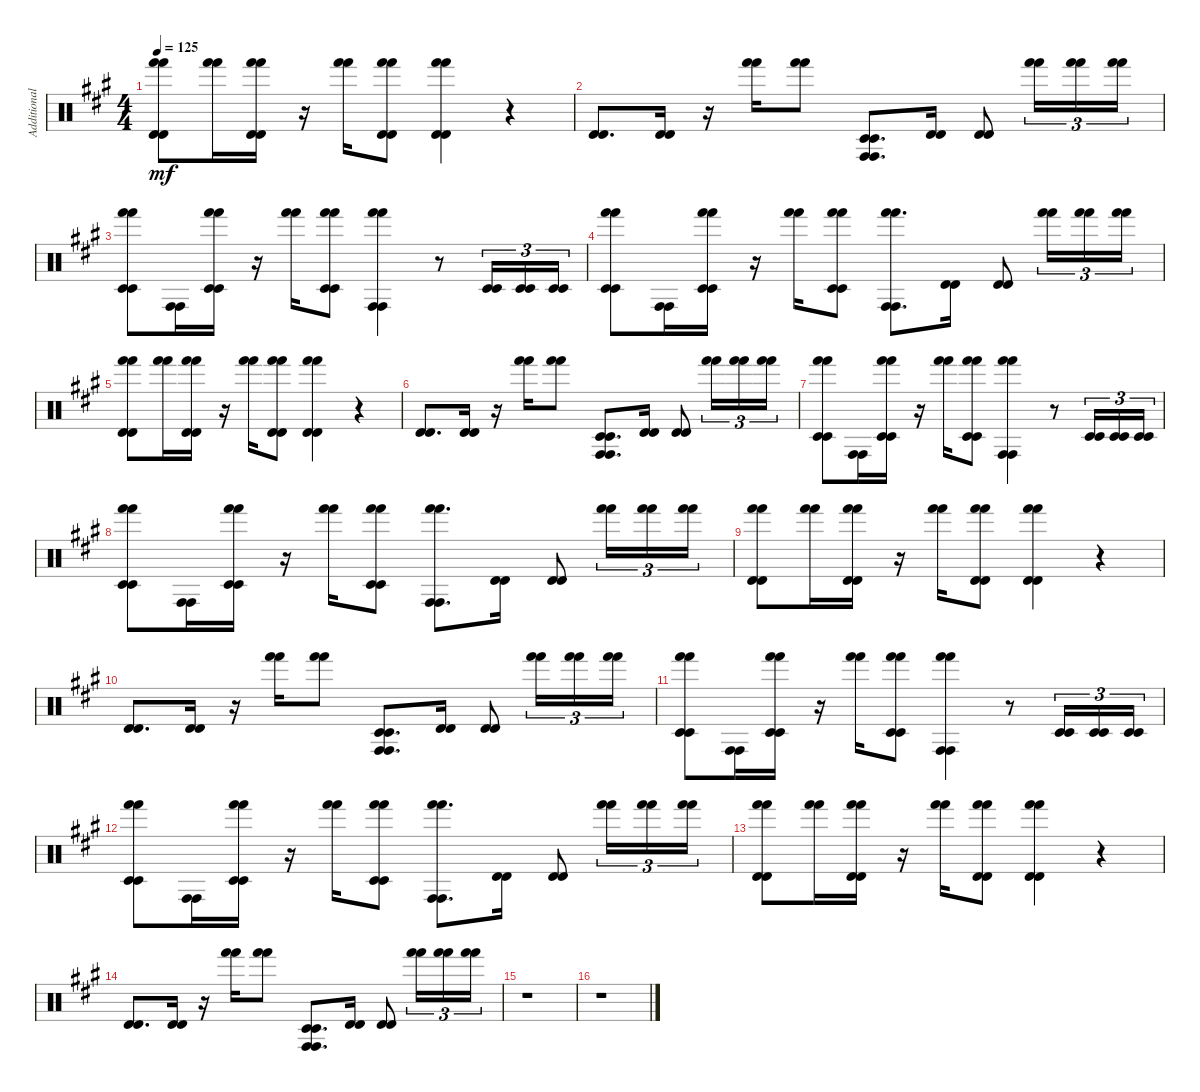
\track ("Additional Percussion I" "Additional") {instrument percussion}
\staff {score}
\articulation defaults
\ts (4 4)
\tempo 125
\clef neutral
\ks a
("Timbale high (hit)" "Timbale high (hit)" "Hand (hit)" "Hand (hit)").8{dy mf} ("Hand (hit)" "Hand (hit)").16 ("Timbale high (hit)" "Timbale high (hit)" "Hand (hit)" "Hand (hit)").16 r.16 ("Hand (hit)" "Hand (hit)").16 ("Timbale high (hit)" "Timbale high (hit)" "Hand (hit)" "Hand (hit)").8 ("Timbale high (hit)" "Timbale high (hit)" "Hand (hit)" "Hand (hit)").4 r.4 |
("Timbale high (hit)" "Timbale high (hit)").8{d} ("Timbale high (hit)" "Timbale high (hit)").16 r.16 ("Hand (hit)" "Hand (hit)").16 ("Hand (hit)" "Hand (hit)").8 ("Timbale low (hit)" "Timbale low (hit)" "Conga high (hit)" "Conga high (hit)").8{d} ("Timbale high (hit)" "Timbale high (hit)").16 ("Timbale high (hit)" "Timbale high (hit)").8 ("Hand (hit)" "Hand (hit)").16{tu (3 2)} ("Hand (hit)" "Hand (hit)").16{tu (3 2)} ("Hand (hit)" "Hand (hit)").16{tu (3 2)} |
("Timbale low (hit)" "Timbale low (hit)" "Hand (hit)" "Hand (hit)").8 ("Conga high (hit)" "Conga high (hit)").16 ("Timbale low (hit)" "Timbale low (hit)" "Hand (hit)" "Hand (hit)").16 r.16 ("Hand (hit)" "Hand (hit)").16 ("Timbale low (hit)" "Timbale low (hit)" "Hand (hit)" "Hand (hit)").8 ("Hand (hit)" "Hand (hit)" "Conga high (hit)" "Conga high (hit)").4 r.8 ("Timbale low (hit)" "Timbale low (hit)").16{tu (3 2)} ("Timbale low (hit)" "Timbale low (hit)").16{tu (3 2)} ("Timbale low (hit)" "Timbale low (hit)").16{tu (3 2)} |
("Timbale low (hit)" "Timbale low (hit)" "Hand (hit)" "Hand (hit)").8 ("Conga high (hit)" "Conga high (hit)").16 ("Timbale low (hit)" "Timbale low (hit)" "Hand (hit)" "Hand (hit)").16 r.16 ("Hand (hit)" "Hand (hit)").16 ("Timbale low (hit)" "Timbale low (hit)" "Hand (hit)" "Hand (hit)").8 ("Hand (hit)" "Hand (hit)" "Conga high (hit)" "Conga high (hit)").8{d} ("Timbale high (hit)" "Timbale high (hit)").16 ("Timbale high (hit)" "Timbale high (hit)").8 ("Hand (hit)" "Hand (hit)").16{tu (3 2)} ("Hand (hit)" "Hand (hit)").16{tu (3 2)} ("Hand (hit)" "Hand (hit)").16{tu (3 2)} |
("Timbale high (hit)" "Timbale high (hit)" "Hand (hit)" "Hand (hit)").8 ("Hand (hit)" "Hand (hit)").16 ("Timbale high (hit)" "Timbale high (hit)" "Hand (hit)" "Hand (hit)").16 r.16 ("Hand (hit)" "Hand (hit)").16 ("Timbale high (hit)" "Timbale high (hit)" "Hand (hit)" "Hand (hit)").8 ("Timbale high (hit)" "Timbale high (hit)" "Hand (hit)" "Hand (hit)").4 r.4 |
("Timbale high (hit)" "Timbale high (hit)").8{d} ("Timbale high (hit)" "Timbale high (hit)").16 r.16 ("Hand (hit)" "Hand (hit)").16 ("Hand (hit)" "Hand (hit)").8 ("Timbale low (hit)" "Timbale low (hit)" "Conga high (hit)" "Conga high (hit)").8{d} ("Timbale high (hit)" "Timbale high (hit)").16 ("Timbale high (hit)" "Timbale high (hit)").8 ("Hand (hit)" "Hand (hit)").16{tu (3 2)} ("Hand (hit)" "Hand (hit)").16{tu (3 2)} ("Hand (hit)" "Hand (hit)").16{tu (3 2)} |
("Timbale low (hit)" "Timbale low (hit)" "Hand (hit)" "Hand (hit)").8 ("Conga high (hit)" "Conga high (hit)").16 ("Timbale low (hit)" "Timbale low (hit)" "Hand (hit)" "Hand (hit)").16 r.16 ("Hand (hit)" "Hand (hit)").16 ("Timbale low (hit)" "Timbale low (hit)" "Hand (hit)" "Hand (hit)").8 ("Hand (hit)" "Hand (hit)" "Conga high (hit)" "Conga high (hit)").4 r.8 ("Timbale low (hit)" "Timbale low (hit)").16{tu (3 2)} ("Timbale low (hit)" "Timbale low (hit)").16{tu (3 2)} ("Timbale low (hit)" "Timbale low (hit)").16{tu (3 2)} |
("Timbale low (hit)" "Timbale low (hit)" "Hand (hit)" "Hand (hit)").8 ("Conga high (hit)" "Conga high (hit)").16 ("Timbale low (hit)" "Timbale low (hit)" "Hand (hit)" "Hand (hit)").16 r.16 ("Hand (hit)" "Hand (hit)").16 ("Timbale low (hit)" "Timbale low (hit)" "Hand (hit)" "Hand (hit)").8 ("Hand (hit)" "Hand (hit)" "Conga high (hit)" "Conga high (hit)").8{d} ("Timbale high (hit)" "Timbale high (hit)").16 ("Timbale high (hit)" "Timbale high (hit)").8 ("Hand (hit)" "Hand (hit)").16{tu (3 2)} ("Hand (hit)" "Hand (hit)").16{tu (3 2)} ("Hand (hit)" "Hand (hit)").16{tu (3 2)} |
("Timbale high (hit)" "Timbale high (hit)" "Hand (hit)" "Hand (hit)").8 ("Hand (hit)" "Hand (hit)").16 ("Timbale high (hit)" "Timbale high (hit)" "Hand (hit)" "Hand (hit)").16 r.16 ("Hand (hit)" "Hand (hit)").16 ("Timbale high (hit)" "Timbale high (hit)" "Hand (hit)" "Hand (hit)").8 ("Timbale high (hit)" "Timbale high (hit)" "Hand (hit)" "Hand (hit)").4 r.4 |
("Timbale high (hit)" "Timbale high (hit)").8{d} ("Timbale high (hit)" "Timbale high (hit)").16 r.16 ("Hand (hit)" "Hand (hit)").16 ("Hand (hit)" "Hand (hit)").8 ("Timbale low (hit)" "Timbale low (hit)" "Conga high (hit)" "Conga high (hit)").8{d} ("Timbale high (hit)" "Timbale high (hit)").16 ("Timbale high (hit)" "Timbale high (hit)").8 ("Hand (hit)" "Hand (hit)").16{tu (3 2)} ("Hand (hit)" "Hand (hit)").16{tu (3 2)} ("Hand (hit)" "Hand (hit)").16{tu (3 2)} |
("Timbale low (hit)" "Timbale low (hit)" "Hand (hit)" "Hand (hit)").8 ("Conga high (hit)" "Conga high (hit)").16 ("Timbale low (hit)" "Timbale low (hit)" "Hand (hit)" "Hand (hit)").16 r.16 ("Hand (hit)" "Hand (hit)").16 ("Timbale low (hit)" "Timbale low (hit)" "Hand (hit)" "Hand (hit)").8 ("Hand (hit)" "Hand (hit)" "Conga high (hit)" "Conga high (hit)").4 r.8 ("Timbale low (hit)" "Timbale low (hit)").16{tu (3 2)} ("Timbale low (hit)" "Timbale low (hit)").16{tu (3 2)} ("Timbale low (hit)" "Timbale low (hit)").16{tu (3 2)} |
("Timbale low (hit)" "Timbale low (hit)" "Hand (hit)" "Hand (hit)").8 ("Conga high (hit)" "Conga high (hit)").16 ("Timbale low (hit)" "Timbale low (hit)" "Hand (hit)" "Hand (hit)").16 r.16 ("Hand (hit)" "Hand (hit)").16 ("Timbale low (hit)" "Timbale low (hit)" "Hand (hit)" "Hand (hit)").8 ("Hand (hit)" "Hand (hit)" "Conga high (hit)" "Conga high (hit)").8{d} ("Timbale high (hit)" "Timbale high (hit)").16 ("Timbale high (hit)" "Timbale high (hit)").8 ("Hand (hit)" "Hand (hit)").16{tu (3 2)} ("Hand (hit)" "Hand (hit)").16{tu (3 2)} ("Hand (hit)" "Hand (hit)").16{tu (3 2)} |
("Timbale high (hit)" "Timbale high (hit)" "Hand (hit)" "Hand (hit)").8 ("Hand (hit)" "Hand (hit)").16 ("Timbale high (hit)" "Timbale high (hit)" "Hand (hit)" "Hand (hit)").16 r.16 ("Hand (hit)" "Hand (hit)").16 ("Timbale high (hit)" "Timbale high (hit)" "Hand (hit)" "Hand (hit)").8 ("Timbale high (hit)" "Timbale high (hit)" "Hand (hit)" "Hand (hit)").4 r.4 |
("Timbale high (hit)" "Timbale high (hit)").8{d} ("Timbale high (hit)" "Timbale high (hit)").16 r.16 ("Hand (hit)" "Hand (hit)").16 ("Hand (hit)" "Hand (hit)").8 ("Timbale low (hit)" "Timbale low (hit)" "Conga high (hit)" "Conga high (hit)").8{d} ("Timbale high (hit)" "Timbale high (hit)").16 ("Timbale high (hit)" "Timbale high (hit)").8 ("Hand (hit)" "Hand (hit)").16{tu (3 2)} ("Hand (hit)" "Hand (hit)").16{tu (3 2)} ("Hand (hit)" "Hand (hit)").16{tu (3 2)} |
r.1 |
r.1
